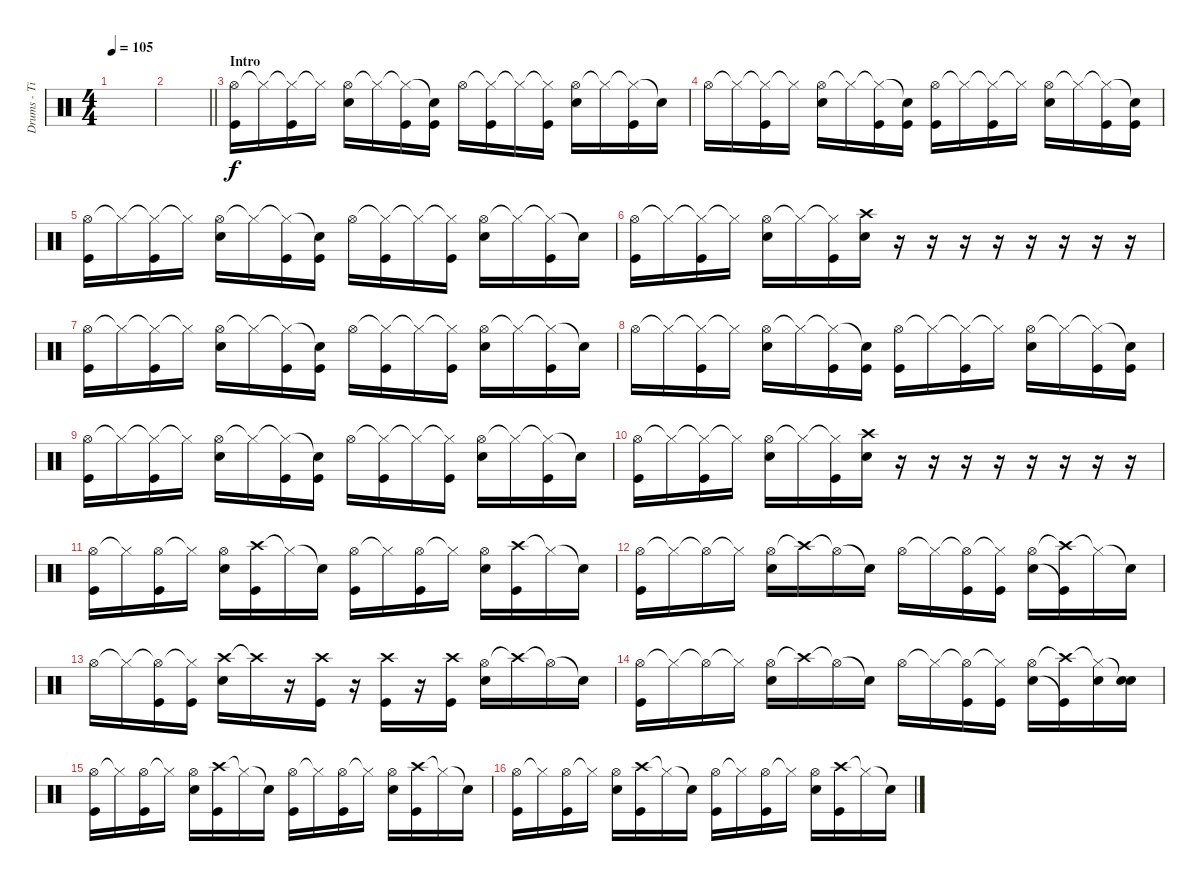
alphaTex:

\track ("Drums - Tipu" "Drums - Ti") {instrument percussion}
\staff {score}
\articulation defaults
\ts (4 4)
\tempo 105
\clef neutral
\ks c
|
\barLineRight lightlight
|
\section ("" "Intro")
("Hi-Hat (open)" "Kick (hit)").16 "Hi-Hat (closed)"{t}.16 ("Hi-Hat (closed)"{t} "Kick (hit)").16 "Hi-Hat (closed)"{t}.16 ("Hi-Hat (open)" "Electric Snare (hit)").16 "Hi-Hat (closed)"{t}.16 ("Hi-Hat (closed)"{t} "Kick (hit)").16 ("Snare (hit)"{t} "Kick (hit)").16 "Hi-Hat (open)".16 ("Hi-Hat (closed)"{t} "Kick (hit)").16 "Hi-Hat (closed)"{t}.16 ("Hi-Hat (closed)"{t} "Kick (hit)").16 ("Hi-Hat (open)" "Electric Snare (hit)").16 "Hi-Hat (closed)"{t}.16 ("Hi-Hat (closed)"{t} "Kick (hit)").16 "Snare (hit)"{t}.16 |
"Hi-Hat (open)".16 "Hi-Hat (closed)"{t}.16 ("Hi-Hat (closed)"{t} "Kick (hit)").16 "Hi-Hat (closed)"{t}.16 ("Hi-Hat (open)" "Electric Snare (hit)").16 "Hi-Hat (closed)"{t}.16 ("Hi-Hat (closed)"{t} "Kick (hit)").16 ("Snare (hit)"{t} "Kick (hit)").16 ("Hi-Hat (open)" "Kick (hit)").16 "Hi-Hat (closed)"{t}.16 ("Hi-Hat (closed)"{t} "Kick (hit)").16 "Hi-Hat (closed)"{t}.16 ("Hi-Hat (open)" "Electric Snare (hit)").16 "Hi-Hat (closed)"{t}.16 ("Hi-Hat (closed)"{t} "Kick (hit)").16 ("Snare (hit)"{t} "Kick (hit)").16 |
("Hi-Hat (open)" "Kick (hit)").16 "Hi-Hat (closed)"{t}.16 ("Hi-Hat (closed)"{t} "Kick (hit)").16 "Hi-Hat (closed)"{t}.16 ("Hi-Hat (open)" "Electric Snare (hit)").16 "Hi-Hat (closed)"{t}.16 ("Hi-Hat (closed)"{t} "Kick (hit)").16 ("Snare (hit)"{t} "Kick (hit)").16 "Hi-Hat (open)".16 ("Hi-Hat (closed)"{t} "Kick (hit)").16 "Hi-Hat (closed)"{t}.16 ("Hi-Hat (closed)"{t} "Kick (hit)").16 ("Hi-Hat (open)" "Electric Snare (hit)").16 "Hi-Hat (closed)"{t}.16 ("Hi-Hat (closed)"{t} "Kick (hit)").16 "Snare (hit)"{t}.16 |
("Hi-Hat (open)" "Kick (hit)").16 "Hi-Hat (closed)"{t}.16 ("Hi-Hat (closed)"{t} "Kick (hit)").16 "Hi-Hat (closed)"{t}.16 ("Hi-Hat (open)" "Electric Snare (hit)").16 "Hi-Hat (closed)"{t}.16 ("Hi-Hat (closed)"{t} "Kick (hit)").16 ("Crash high (hit)" "Electric Snare (hit)").16 r.16 r.16 r.16 r.16 r.16 r.16 r.16 r.16 |
("Hi-Hat (open)" "Kick (hit)").16 "Hi-Hat (closed)"{t}.16 ("Hi-Hat (closed)"{t} "Kick (hit)").16 "Hi-Hat (closed)"{t}.16 ("Hi-Hat (open)" "Electric Snare (hit)").16 "Hi-Hat (closed)"{t}.16 ("Hi-Hat (closed)"{t} "Kick (hit)").16 ("Snare (hit)"{t} "Kick (hit)").16 "Hi-Hat (open)".16 ("Hi-Hat (closed)"{t} "Kick (hit)").16 "Hi-Hat (closed)"{t}.16 ("Hi-Hat (closed)"{t} "Kick (hit)").16 ("Hi-Hat (open)" "Electric Snare (hit)").16 "Hi-Hat (closed)"{t}.16 ("Hi-Hat (closed)"{t} "Kick (hit)").16 "Snare (hit)"{t}.16 |
"Hi-Hat (open)".16 "Hi-Hat (closed)"{t}.16 ("Hi-Hat (closed)"{t} "Kick (hit)").16 "Hi-Hat (closed)"{t}.16 ("Hi-Hat (open)" "Electric Snare (hit)").16 "Hi-Hat (closed)"{t}.16 ("Hi-Hat (closed)"{t} "Kick (hit)").16 ("Snare (hit)"{t} "Kick (hit)").16 ("Hi-Hat (open)" "Kick (hit)").16 "Hi-Hat (closed)"{t}.16 ("Hi-Hat (closed)"{t} "Kick (hit)").16 "Hi-Hat (closed)"{t}.16 ("Hi-Hat (open)" "Electric Snare (hit)").16 "Hi-Hat (closed)"{t}.16 ("Hi-Hat (closed)"{t} "Kick (hit)").16 ("Snare (hit)"{t} "Kick (hit)").16 |
("Hi-Hat (open)" "Kick (hit)").16 "Hi-Hat (closed)"{t}.16 ("Hi-Hat (closed)"{t} "Kick (hit)").16 "Hi-Hat (closed)"{t}.16 ("Hi-Hat (open)" "Electric Snare (hit)").16 "Hi-Hat (closed)"{t}.16 ("Hi-Hat (closed)"{t} "Kick (hit)").16 ("Snare (hit)"{t} "Kick (hit)").16 "Hi-Hat (open)".16 ("Hi-Hat (closed)"{t} "Kick (hit)").16 "Hi-Hat (closed)"{t}.16 ("Hi-Hat (closed)"{t} "Kick (hit)").16 ("Hi-Hat (open)" "Electric Snare (hit)").16 "Hi-Hat (closed)"{t}.16 ("Hi-Hat (closed)"{t} "Kick (hit)").16 "Snare (hit)"{t}.16 |
("Hi-Hat (open)" "Kick (hit)").16 "Hi-Hat (closed)"{t}.16 ("Hi-Hat (closed)"{t} "Kick (hit)").16 "Hi-Hat (closed)"{t}.16 ("Hi-Hat (open)" "Electric Snare (hit)").16 "Hi-Hat (closed)"{t}.16 ("Hi-Hat (closed)"{t} "Kick (hit)").16 ("Crash high (hit)" "Electric Snare (hit)").16 r.16 r.16 r.16 r.16 r.16 r.16 r.16 r.16 |
("Hi-Hat (open)" "Kick (hit)").16 "Hi-Hat (closed)"{t}.16 ("Hi-Hat (open)" "Kick (hit)").16 "Hi-Hat (closed)"{t}.16 ("Hi-Hat (open)" "Electric Snare (hit)").16 ("Crash high (hit)" "Kick (hit)").16 "Hi-Hat (closed)"{t}.16 "Snare (hit)"{t}.16 ("Hi-Hat (open)" "Kick (hit)").16 "Hi-Hat (closed)"{t}.16 ("Hi-Hat (open)" "Kick (hit)").16 "Hi-Hat (closed)"{t}.16 ("Hi-Hat (open)" "Electric Snare (hit)").16 ("Crash high (hit)" "Kick (hit)").16 "Hi-Hat (closed)"{t}.16 "Snare (hit)"{t}.16 |
("Hi-Hat (open)" "Kick (hit)").16 "Hi-Hat (closed)"{t}.16 "Hi-Hat (open)"{t}.16 "Hi-Hat (closed)"{t}.16 ("Hi-Hat (open)" "Electric Snare (hit)").16 "Crash high (hit)"{t}.16 "Hi-Hat (open)"{t}.16 "Snare (hit)"{t}.16 "Hi-Hat (open)".16 "Hi-Hat (closed)"{t}.16 ("Hi-Hat (open)"{t} "Kick (hit)").16 ("Hi-Hat (closed)"{t} "Kick (hit)").16 ("Hi-Hat (open)" "Electric Snare (hit)").16 ("Crash high (hit)"{t} "Kick (hit)"{t}).16 "Hi-Hat (closed)"{t}.16 "Snare (hit)"{t}.16 |
"Hi-Hat (open)".16 "Hi-Hat (closed)"{t}.16 ("Hi-Hat (open)"{t} "Kick (hit)").16 ("Hi-Hat (closed)"{t} "Kick (hit)").16 ("Crash high (hit)" "Electric Snare (hit)").16 "Crash high (hit)"{t}.16 r.16 ("Crash high (hit)" "Kick (hit)").16 r.16 ("Crash high (hit)" "Kick (hit)").16 r.16 ("Crash high (hit)" "Kick (hit)").16 ("Hi-Hat (open)" "Electric Snare (hit)").16 "Crash high (hit)"{t}.16 "Hi-Hat (open)"{t}.16 "Snare (hit)"{t}.16 |
("Hi-Hat (open)" "Kick (hit)").16 "Hi-Hat (closed)"{t}.16 "Hi-Hat (open)"{t}.16 "Hi-Hat (closed)"{t}.16 ("Hi-Hat (open)" "Electric Snare (hit)").16 "Crash high (hit)"{t}.16 "Hi-Hat (open)"{t}.16 "Snare (hit)"{t}.16 "Hi-Hat (open)".16 "Hi-Hat (closed)"{t}.16 ("Hi-Hat (open)"{t} "Kick (hit)").16 ("Hi-Hat (closed)"{t} "Kick (hit)").16 ("Hi-Hat (open)" "Electric Snare (hit)").16 ("Crash high (hit)"{t} "Kick (hit)"{t}).16 ("Hi-Hat (closed)"{t} "Electric Snare (hit)").16 ("Snare (hit)"{t} "Electric Snare (hit)").16 |
("Hi-Hat (open)" "Kick (hit)").16 "Hi-Hat (closed)"{t}.16 ("Hi-Hat (open)" "Kick (hit)").16 "Hi-Hat (closed)"{t}.16 ("Hi-Hat (open)" "Electric Snare (hit)").16 ("Crash high (hit)" "Kick (hit)").16 "Hi-Hat (closed)"{t}.16 "Snare (hit)"{t}.16 ("Hi-Hat (open)" "Kick (hit)").16 "Hi-Hat (closed)"{t}.16 ("Hi-Hat (open)" "Kick (hit)").16 "Hi-Hat (closed)"{t}.16 ("Hi-Hat (open)" "Electric Snare (hit)").16 ("Crash high (hit)" "Kick (hit)").16 "Hi-Hat (closed)"{t}.16 "Snare (hit)"{t}.16 |
("Hi-Hat (open)" "Kick (hit)").16 "Hi-Hat (closed)"{t}.16 ("Hi-Hat (open)" "Kick (hit)").16 "Hi-Hat (closed)"{t}.16 ("Hi-Hat (open)" "Electric Snare (hit)").16 ("Crash high (hit)" "Kick (hit)").16 "Hi-Hat (closed)"{t}.16 "Snare (hit)"{t}.16 ("Hi-Hat (open)" "Kick (hit)").16 "Hi-Hat (closed)"{t}.16 ("Hi-Hat (open)" "Kick (hit)").16 "Hi-Hat (closed)"{t}.16 ("Hi-Hat (open)" "Electric Snare (hit)").16 ("Crash high (hit)" "Kick (hit)").16 "Hi-Hat (closed)"{t}.16 "Snare (hit)"{t}.16
